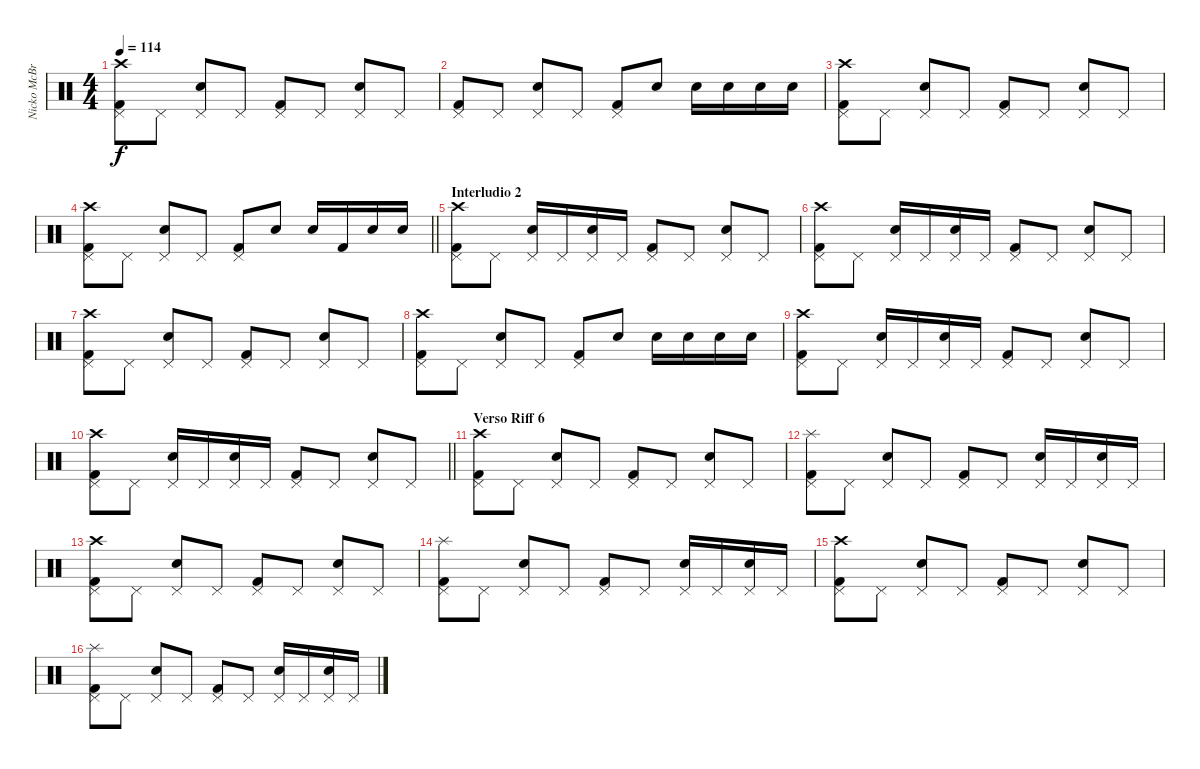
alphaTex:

\track ("Nicko McBrain" "Nicko McBr") {instrument percussion}
\staff {score}
\articulation defaults
\ts (4 4)
\tempo 114
\clef neutral
\ks c
("Kick (hit) 2" "Pedal Hi-Hat (hit)" "Crash high (hit)").8{dy f} "Pedal Hi-Hat (hit)".8 ("Snare (hit) 2" "Pedal Hi-Hat (hit)").8 "Pedal Hi-Hat (hit)".8 ("Kick (hit) 2" "Pedal Hi-Hat (hit)").8 "Pedal Hi-Hat (hit)".8 ("Snare (hit) 2" "Pedal Hi-Hat (hit)").8 "Pedal Hi-Hat (hit)".8 |
("Kick (hit) 2" "Pedal Hi-Hat (hit)").8 "Pedal Hi-Hat (hit)".8 ("Snare (hit) 2" "Pedal Hi-Hat (hit)").8 "Pedal Hi-Hat (hit)".8 ("Kick (hit) 2" "Pedal Hi-Hat (hit)").8 "Snare (hit) 2".8 "Snare (hit) 2".16 "Snare (hit) 2".16 "Snare (hit) 2".16 "Snare (hit) 2".16 |
("Kick (hit) 2" "Pedal Hi-Hat (hit)" "Crash high (hit)").8 "Pedal Hi-Hat (hit)".8 ("Snare (hit) 2" "Pedal Hi-Hat (hit)").8 "Pedal Hi-Hat (hit)".8 ("Kick (hit) 2" "Pedal Hi-Hat (hit)").8 "Pedal Hi-Hat (hit)".8 ("Snare (hit) 2" "Pedal Hi-Hat (hit)").8 "Pedal Hi-Hat (hit)".8 |
\barLineRight lightlight
("Kick (hit) 2" "Pedal Hi-Hat (hit)" "Crash high (hit)").8 "Pedal Hi-Hat (hit)".8 ("Snare (hit) 2" "Pedal Hi-Hat (hit)").8 "Pedal Hi-Hat (hit)".8 ("Kick (hit) 2" "Pedal Hi-Hat (hit)").8 "Snare (hit) 2".8 "Snare (hit) 2".16 "Kick (hit) 2".16 "Snare (hit) 2".16 "Snare (hit) 2".16 |
\section ("" "Interludio 2")
("Kick (hit) 2" "Pedal Hi-Hat (hit)" "Crash high (hit)").8 "Pedal Hi-Hat (hit)".8 ("Snare (hit) 2" "Pedal Hi-Hat (hit)").16 "Pedal Hi-Hat (hit)".16 ("Snare (hit) 2" "Pedal Hi-Hat (hit)").16 "Pedal Hi-Hat (hit)".16 ("Kick (hit) 2" "Pedal Hi-Hat (hit)").8 "Pedal Hi-Hat (hit)".8 ("Snare (hit) 2" "Pedal Hi-Hat (hit)").8 "Pedal Hi-Hat (hit)".8 |
("Kick (hit) 2" "Pedal Hi-Hat (hit)" "Crash high (hit)").8 "Pedal Hi-Hat (hit)".8 ("Snare (hit) 2" "Pedal Hi-Hat (hit)").16 "Pedal Hi-Hat (hit)".16 ("Snare (hit) 2" "Pedal Hi-Hat (hit)").16 "Pedal Hi-Hat (hit)".16 ("Kick (hit) 2" "Pedal Hi-Hat (hit)").8 "Pedal Hi-Hat (hit)".8 ("Snare (hit) 2" "Pedal Hi-Hat (hit)").8 "Pedal Hi-Hat (hit)".8 |
("Kick (hit) 2" "Pedal Hi-Hat (hit)" "Crash high (hit)").8 "Pedal Hi-Hat (hit)".8 ("Snare (hit) 2" "Pedal Hi-Hat (hit)").8 "Pedal Hi-Hat (hit)".8 ("Kick (hit) 2" "Pedal Hi-Hat (hit)").8 "Pedal Hi-Hat (hit)".8 ("Snare (hit) 2" "Pedal Hi-Hat (hit)").8 "Pedal Hi-Hat (hit)".8 |
("Kick (hit) 2" "Pedal Hi-Hat (hit)" "Crash high (hit)").8 "Pedal Hi-Hat (hit)".8 ("Snare (hit) 2" "Pedal Hi-Hat (hit)").8 "Pedal Hi-Hat (hit)".8 ("Kick (hit) 2" "Pedal Hi-Hat (hit)").8 "Snare (hit) 2".8 "Snare (hit) 2".16 "Snare (hit) 2".16 "Snare (hit) 2".16 "Snare (hit) 2".16 |
("Kick (hit) 2" "Pedal Hi-Hat (hit)" "Crash high (hit)").8 "Pedal Hi-Hat (hit)".8 ("Snare (hit) 2" "Pedal Hi-Hat (hit)").16 "Pedal Hi-Hat (hit)".16 ("Snare (hit) 2" "Pedal Hi-Hat (hit)").16 "Pedal Hi-Hat (hit)".16 ("Kick (hit) 2" "Pedal Hi-Hat (hit)").8 "Pedal Hi-Hat (hit)".8 ("Snare (hit) 2" "Pedal Hi-Hat (hit)").8 "Pedal Hi-Hat (hit)".8 |
\barLineRight lightlight
("Kick (hit) 2" "Pedal Hi-Hat (hit)" "Crash high (hit)").8 "Pedal Hi-Hat (hit)".8 ("Snare (hit) 2" "Pedal Hi-Hat (hit)").16 "Pedal Hi-Hat (hit)".16 ("Snare (hit) 2" "Pedal Hi-Hat (hit)").16 "Pedal Hi-Hat (hit)".16 ("Kick (hit) 2" "Pedal Hi-Hat (hit)").8 "Pedal Hi-Hat (hit)".8 ("Snare (hit) 2" "Pedal Hi-Hat (hit)").8 "Pedal Hi-Hat (hit)".8 |
\section ("" "Verso Riff 6")
("Kick (hit) 2" "Pedal Hi-Hat (hit)" "Crash high (hit)").8 "Pedal Hi-Hat (hit)".8 ("Snare (hit) 2" "Pedal Hi-Hat (hit)").8 "Pedal Hi-Hat (hit)".8 ("Kick (hit) 2" "Pedal Hi-Hat (hit)").8 "Pedal Hi-Hat (hit)".8 ("Snare (hit) 2" "Pedal Hi-Hat (hit)").8 "Pedal Hi-Hat (hit)".8 |
("Kick (hit) 2" "Pedal Hi-Hat (hit)" "Splash (hit)").8 "Pedal Hi-Hat (hit)".8 ("Snare (hit) 2" "Pedal Hi-Hat (hit)").8 "Pedal Hi-Hat (hit)".8 ("Kick (hit) 2" "Pedal Hi-Hat (hit)").8 "Pedal Hi-Hat (hit)".8 ("Snare (hit) 2" "Pedal Hi-Hat (hit)").16 "Pedal Hi-Hat (hit)".16 ("Snare (hit) 2" "Pedal Hi-Hat (hit)").16 "Pedal Hi-Hat (hit)".16 |
("Kick (hit) 2" "Pedal Hi-Hat (hit)" "Crash high (hit)").8 "Pedal Hi-Hat (hit)".8 ("Snare (hit) 2" "Pedal Hi-Hat (hit)").8 "Pedal Hi-Hat (hit)".8 ("Kick (hit) 2" "Pedal Hi-Hat (hit)").8 "Pedal Hi-Hat (hit)".8 ("Snare (hit) 2" "Pedal Hi-Hat (hit)").8 "Pedal Hi-Hat (hit)".8 |
("Kick (hit) 2" "Pedal Hi-Hat (hit)" "Splash (hit)").8 "Pedal Hi-Hat (hit)".8 ("Snare (hit) 2" "Pedal Hi-Hat (hit)").8 "Pedal Hi-Hat (hit)".8 ("Kick (hit) 2" "Pedal Hi-Hat (hit)").8 "Pedal Hi-Hat (hit)".8 ("Snare (hit) 2" "Pedal Hi-Hat (hit)").16 "Pedal Hi-Hat (hit)".16 ("Snare (hit) 2" "Pedal Hi-Hat (hit)").16 "Pedal Hi-Hat (hit)".16 |
("Kick (hit) 2" "Pedal Hi-Hat (hit)" "Crash high (hit)").8 "Pedal Hi-Hat (hit)".8 ("Snare (hit) 2" "Pedal Hi-Hat (hit)").8 "Pedal Hi-Hat (hit)".8 ("Kick (hit) 2" "Pedal Hi-Hat (hit)").8 "Pedal Hi-Hat (hit)".8 ("Snare (hit) 2" "Pedal Hi-Hat (hit)").8 "Pedal Hi-Hat (hit)".8 |
("Kick (hit) 2" "Pedal Hi-Hat (hit)" "Splash (hit)").8 "Pedal Hi-Hat (hit)".8 ("Snare (hit) 2" "Pedal Hi-Hat (hit)").8 "Pedal Hi-Hat (hit)".8 ("Kick (hit) 2" "Pedal Hi-Hat (hit)").8 "Pedal Hi-Hat (hit)".8 ("Snare (hit) 2" "Pedal Hi-Hat (hit)").16 "Pedal Hi-Hat (hit)".16 ("Snare (hit) 2" "Pedal Hi-Hat (hit)").16 "Pedal Hi-Hat (hit)".16
